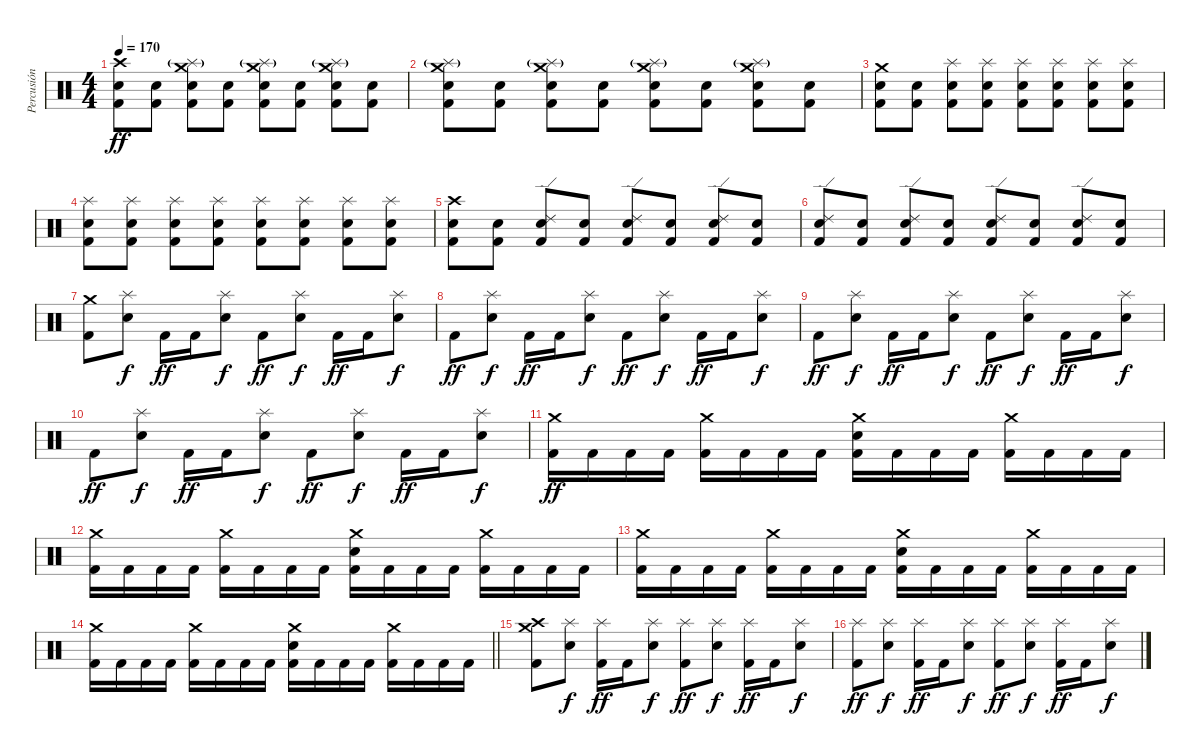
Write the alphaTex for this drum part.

\track ("Percusión" "Percusión") {instrument percussion}
\staff {score}
\articulation defaults
\ts (4 4)
\tempo 170
\clef neutral
\ks c
("Crash high (hit)" "Snare (hit) 2" "Kick (hit) 2").8{dy ff} ("Snare (hit) 2" "Kick (hit) 2").8 ("Crash medium (hit)" "Splash (hit)"{g} "Snare (hit) 2" "Kick (hit) 2").8 ("Snare (hit) 2" "Kick (hit) 2").8 ("Crash medium (hit)" "Splash (hit)"{g} "Snare (hit) 2" "Kick (hit) 2").8 ("Snare (hit) 2" "Kick (hit) 2").8 ("Crash medium (hit)" "Splash (hit)"{g} "Snare (hit) 2" "Kick (hit) 2").8 ("Snare (hit) 2" "Kick (hit) 2").8 |
("Crash medium (hit)" "Splash (hit)"{g} "Snare (hit) 2" "Kick (hit) 2").8 ("Snare (hit) 2" "Kick (hit) 2").8 ("Crash medium (hit)" "Splash (hit)"{g} "Snare (hit) 2" "Kick (hit) 2").8 ("Snare (hit) 2" "Kick (hit) 2").8 ("Crash medium (hit)" "Splash (hit)"{g} "Snare (hit) 2" "Kick (hit) 2").8 ("Snare (hit) 2" "Kick (hit) 2").8 ("Crash medium (hit)" "Splash (hit)"{g} "Snare (hit) 2" "Kick (hit) 2").8 ("Snare (hit) 2" "Kick (hit) 2").8 |
("Crash medium (hit)" "Snare (hit) 2" "Kick (hit) 2").8 ("Snare (hit) 2" "Kick (hit) 2").8 ("Splash (hit)" "Snare (hit) 2" "Kick (hit) 2").8 ("Splash (hit)" "Snare (hit) 2" "Kick (hit) 2").8 ("Splash (hit)" "Snare (hit) 2" "Kick (hit) 2").8 ("Splash (hit)" "Snare (hit) 2" "Kick (hit) 2").8 ("Splash (hit)" "Snare (hit) 2" "Kick (hit) 2").8 ("Splash (hit)" "Snare (hit) 2" "Kick (hit) 2").8 |
("Splash (hit)" "Snare (hit) 2" "Kick (hit) 2").8 ("Splash (hit)" "Snare (hit) 2" "Kick (hit) 2").8 ("Splash (hit)" "Snare (hit) 2" "Kick (hit) 2").8 ("Splash (hit)" "Snare (hit) 2" "Kick (hit) 2").8 ("Splash (hit)" "Snare (hit) 2" "Kick (hit) 2").8 ("Splash (hit)" "Snare (hit) 2" "Kick (hit) 2").8 ("Splash (hit)" "Snare (hit) 2" "Kick (hit) 2").8 ("Splash (hit)" "Snare (hit) 2" "Kick (hit) 2").8 |
("Crash high (hit)" "Snare (hit) 2" "Kick (hit) 2").8 ("Snare (hit) 2" "Kick (hit) 2").8 ("Ride (edge) 2" "Snare (hit) 2" "Kick (hit) 2").8 ("Snare (hit) 2" "Kick (hit) 2").8 ("Ride (edge) 2" "Snare (hit) 2" "Kick (hit) 2").8 ("Snare (hit) 2" "Kick (hit) 2").8 ("Ride (edge) 2" "Snare (hit) 2" "Kick (hit) 2").8 ("Snare (hit) 2" "Kick (hit) 2").8 |
("Ride (edge) 2" "Snare (hit) 2" "Kick (hit) 2").8 ("Snare (hit) 2" "Kick (hit) 2").8 ("Ride (edge) 2" "Snare (hit) 2" "Kick (hit) 2").8 ("Snare (hit) 2" "Kick (hit) 2").8 ("Ride (edge) 2" "Snare (hit) 2" "Kick (hit) 2").8 ("Snare (hit) 2" "Kick (hit) 2").8 ("Ride (edge) 2" "Snare (hit) 2" "Kick (hit) 2").8 ("Snare (hit) 2" "Kick (hit) 2").8 |
("Crash medium (hit)" "Kick (hit) 2").8 ("Splash (hit)" "Snare (hit) 2").8{dy f} "Kick (hit) 2".16{dy ff} "Kick (hit) 2".16 ("Splash (hit)" "Snare (hit) 2").8{dy f} "Kick (hit) 2".8{dy ff} ("Splash (hit)" "Snare (hit) 2").8{dy f} "Kick (hit) 2".16{dy ff} "Kick (hit) 2".16 ("Splash (hit)" "Snare (hit) 2").8{dy f} |
"Kick (hit) 2".8{dy ff} ("Splash (hit)" "Snare (hit) 2").8{dy f} "Kick (hit) 2".16{dy ff} "Kick (hit) 2".16 ("Splash (hit)" "Snare (hit) 2").8{dy f} "Kick (hit) 2".8{dy ff} ("Splash (hit)" "Snare (hit) 2").8{dy f} "Kick (hit) 2".16{dy ff} "Kick (hit) 2".16 ("Splash (hit)" "Snare (hit) 2").8{dy f} |
"Kick (hit) 2".8{dy ff} ("Splash (hit)" "Snare (hit) 2").8{dy f} "Kick (hit) 2".16{dy ff} "Kick (hit) 2".16 ("Splash (hit)" "Snare (hit) 2").8{dy f} "Kick (hit) 2".8{dy ff} ("Splash (hit)" "Snare (hit) 2").8{dy f} "Kick (hit) 2".16{dy ff} "Kick (hit) 2".16 ("Splash (hit)" "Snare (hit) 2").8{dy f} |
"Kick (hit) 2".8{dy ff} ("Splash (hit)" "Snare (hit) 2").8{dy f} "Kick (hit) 2".16{dy ff} "Kick (hit) 2".16 ("Splash (hit)" "Snare (hit) 2").8{dy f} "Kick (hit) 2".8{dy ff} ("Splash (hit)" "Snare (hit) 2").8{dy f} "Kick (hit) 2".16{dy ff} "Kick (hit) 2".16 ("Splash (hit)" "Snare (hit) 2").8{dy f} |
("Crash medium (hit)" "Kick (hit) 2").16{dy ff} "Kick (hit) 2".16 "Kick (hit) 2".16 "Kick (hit) 2".16 ("Crash medium (hit)" "Kick (hit) 2").16 "Kick (hit) 2".16 "Kick (hit) 2".16 "Kick (hit) 2".16 ("Crash medium (hit)" "Snare (hit) 2" "Kick (hit) 2").16 "Kick (hit) 2".16 "Kick (hit) 2".16 "Kick (hit) 2".16 ("Crash medium (hit)" "Kick (hit) 2").16 "Kick (hit) 2".16 "Kick (hit) 2".16 "Kick (hit) 2".16 |
("Crash medium (hit)" "Kick (hit) 2").16 "Kick (hit) 2".16 "Kick (hit) 2".16 "Kick (hit) 2".16 ("Crash medium (hit)" "Kick (hit) 2").16 "Kick (hit) 2".16 "Kick (hit) 2".16 "Kick (hit) 2".16 ("Crash medium (hit)" "Snare (hit) 2" "Kick (hit) 2").16 "Kick (hit) 2".16 "Kick (hit) 2".16 "Kick (hit) 2".16 ("Crash medium (hit)" "Kick (hit) 2").16 "Kick (hit) 2".16 "Kick (hit) 2".16 "Kick (hit) 2".16 |
("Crash medium (hit)" "Kick (hit) 2").16 "Kick (hit) 2".16 "Kick (hit) 2".16 "Kick (hit) 2".16 ("Crash medium (hit)" "Kick (hit) 2").16 "Kick (hit) 2".16 "Kick (hit) 2".16 "Kick (hit) 2".16 ("Crash medium (hit)" "Snare (hit) 2" "Kick (hit) 2").16 "Kick (hit) 2".16 "Kick (hit) 2".16 "Kick (hit) 2".16 ("Crash medium (hit)" "Kick (hit) 2").16 "Kick (hit) 2".16 "Kick (hit) 2".16 "Kick (hit) 2".16 |
\barLineRight lightlight
("Crash medium (hit)" "Kick (hit) 2").16 "Kick (hit) 2".16 "Kick (hit) 2".16 "Kick (hit) 2".16 ("Crash medium (hit)" "Kick (hit) 2").16 "Kick (hit) 2".16 "Kick (hit) 2".16 "Kick (hit) 2".16 ("Crash medium (hit)" "Snare (hit) 2" "Kick (hit) 2").16 "Kick (hit) 2".16 "Kick (hit) 2".16 "Kick (hit) 2".16 ("Crash medium (hit)" "Kick (hit) 2").16 "Kick (hit) 2".16 "Kick (hit) 2".16 "Kick (hit) 2".16 |
("Crash medium (hit)" "Crash high (hit)" "Kick (hit) 2").8 ("Splash (hit)" "Snare (hit) 2").8{dy f} ("Splash (hit)" "Kick (hit) 2").16{dy ff} "Kick (hit) 2".16 ("Splash (hit)" "Snare (hit) 2").8{dy f} ("Splash (hit)" "Kick (hit) 2").8{dy ff} ("Splash (hit)" "Snare (hit) 2").8{dy f} ("Splash (hit)" "Kick (hit) 2").16{dy ff} "Kick (hit) 2".16 ("Splash (hit)" "Snare (hit) 2").8{dy f} |
("Splash (hit)" "Kick (hit) 2").8{dy ff} ("Splash (hit)" "Snare (hit) 2").8{dy f} ("Splash (hit)" "Kick (hit) 2").16{dy ff} "Kick (hit) 2".16 ("Splash (hit)" "Snare (hit) 2").8{dy f} ("Splash (hit)" "Kick (hit) 2").8{dy ff} ("Splash (hit)" "Snare (hit) 2").8{dy f} ("Splash (hit)" "Kick (hit) 2").16{dy ff} "Kick (hit) 2".16 ("Splash (hit)" "Snare (hit) 2").8{dy f}
